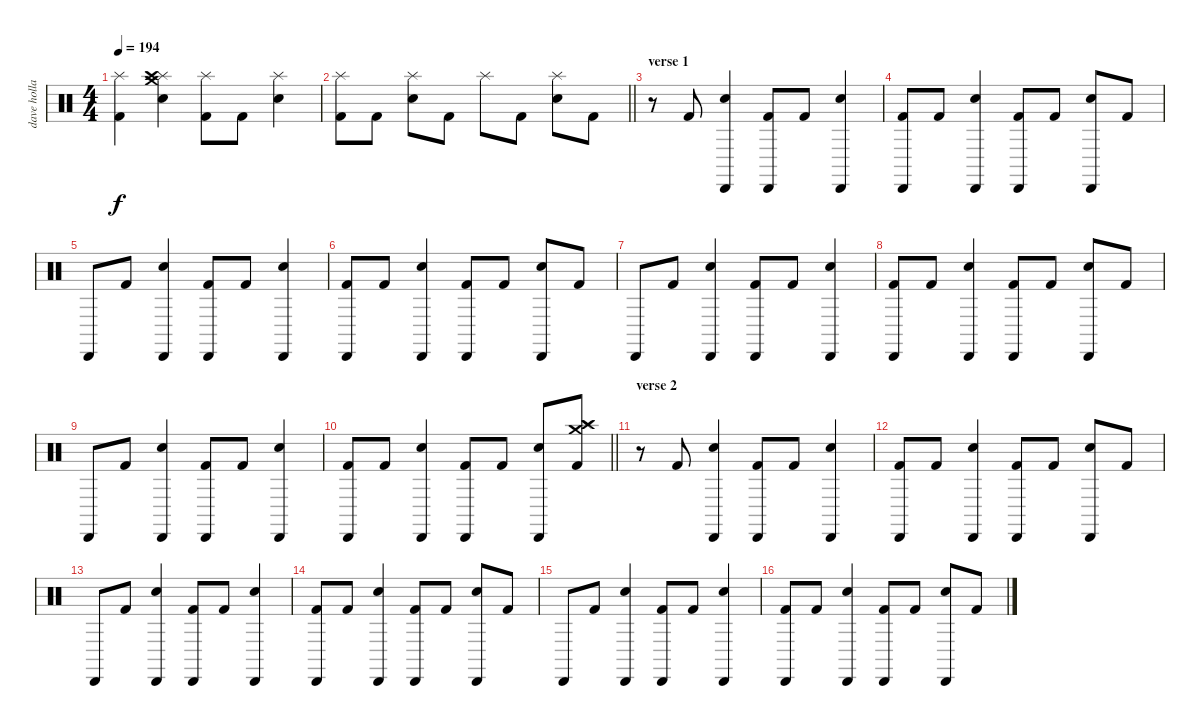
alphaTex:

\track ("dave holland" "dave holla") {instrument percussion}
\staff {score}
\articulation defaults
\ts (4 4)
\tempo 194
\clef neutral
\ks c
("Splash (hit)" "Kick (hit) 2").4{dy f} ("Crash medium (hit)" "Splash (hit)" "Crash high (hit)" "Electric Snare (hit)").4 ("Splash (hit)" "Kick (hit) 2").8 "Kick (hit) 2".8 ("Splash (hit)" "Electric Snare (hit)").4 |
\barLineRight lightlight
("Splash (hit)" "Kick (hit) 2").8 "Kick (hit) 2".8 ("Splash (hit)" "Electric Snare (hit)").8 "Kick (hit) 2".8 "Splash (hit)".8 "Kick (hit) 2".8 ("Splash (hit)" "Electric Snare (hit)").8 "Kick (hit) 2".8 |
\section ("" "verse 1")
r.8 "Kick (hit) 2".8 ("Cabasa (hit)" "Electric Snare (hit)").4 ("Cabasa (hit)" "Kick (hit) 2").8 "Kick (hit) 2".8 ("Cabasa (hit)" "Electric Snare (hit)").4 |
("Cabasa (hit)" "Kick (hit) 2").8 "Kick (hit) 2".8 ("Cabasa (hit)" "Electric Snare (hit)").4 ("Cabasa (hit)" "Kick (hit) 2").8 "Kick (hit) 2".8 ("Cabasa (hit)" "Electric Snare (hit)").8 "Kick (hit) 2".8 |
"Cabasa (hit)".8 "Kick (hit) 2".8 ("Cabasa (hit)" "Electric Snare (hit)").4 ("Cabasa (hit)" "Kick (hit) 2").8 "Kick (hit) 2".8 ("Cabasa (hit)" "Electric Snare (hit)").4 |
("Cabasa (hit)" "Kick (hit) 2").8 "Kick (hit) 2".8 ("Cabasa (hit)" "Electric Snare (hit)").4 ("Cabasa (hit)" "Kick (hit) 2").8 "Kick (hit) 2".8 ("Cabasa (hit)" "Electric Snare (hit)").8 "Kick (hit) 2".8 |
"Cabasa (hit)".8 "Kick (hit) 2".8 ("Cabasa (hit)" "Electric Snare (hit)").4 ("Cabasa (hit)" "Kick (hit) 2").8 "Kick (hit) 2".8 ("Cabasa (hit)" "Electric Snare (hit)").4 |
("Cabasa (hit)" "Kick (hit) 2").8 "Kick (hit) 2".8 ("Cabasa (hit)" "Electric Snare (hit)").4 ("Cabasa (hit)" "Kick (hit) 2").8 "Kick (hit) 2".8 ("Cabasa (hit)" "Electric Snare (hit)").8 "Kick (hit) 2".8 |
"Cabasa (hit)".8 "Kick (hit) 2".8 ("Cabasa (hit)" "Electric Snare (hit)").4 ("Cabasa (hit)" "Kick (hit) 2").8 "Kick (hit) 2".8 ("Cabasa (hit)" "Electric Snare (hit)").4 |
\barLineRight lightlight
("Cabasa (hit)" "Kick (hit) 2").8 "Kick (hit) 2".8 ("Cabasa (hit)" "Electric Snare (hit)").4 ("Cabasa (hit)" "Kick (hit) 2").8 "Kick (hit) 2".8 ("Cabasa (hit)" "Electric Snare (hit)").8 ("Crash medium (hit)" "Splash (hit)" "Crash high (hit)" "Kick (hit) 2").8 |
\section ("" "verse 2")
r.8 "Kick (hit) 2".8 ("Cabasa (hit)" "Electric Snare (hit)").4 ("Cabasa (hit)" "Kick (hit) 2").8 "Kick (hit) 2".8 ("Cabasa (hit)" "Electric Snare (hit)").4 |
("Cabasa (hit)" "Kick (hit) 2").8 "Kick (hit) 2".8 ("Cabasa (hit)" "Electric Snare (hit)").4 ("Cabasa (hit)" "Kick (hit) 2").8 "Kick (hit) 2".8 ("Cabasa (hit)" "Electric Snare (hit)").8 "Kick (hit) 2".8 |
"Cabasa (hit)".8 "Kick (hit) 2".8 ("Cabasa (hit)" "Electric Snare (hit)").4 ("Cabasa (hit)" "Kick (hit) 2").8 "Kick (hit) 2".8 ("Cabasa (hit)" "Electric Snare (hit)").4 |
("Cabasa (hit)" "Kick (hit) 2").8 "Kick (hit) 2".8 ("Cabasa (hit)" "Electric Snare (hit)").4 ("Cabasa (hit)" "Kick (hit) 2").8 "Kick (hit) 2".8 ("Cabasa (hit)" "Electric Snare (hit)").8 "Kick (hit) 2".8 |
"Cabasa (hit)".8 "Kick (hit) 2".8 ("Cabasa (hit)" "Electric Snare (hit)").4 ("Cabasa (hit)" "Kick (hit) 2").8 "Kick (hit) 2".8 ("Cabasa (hit)" "Electric Snare (hit)").4 |
("Cabasa (hit)" "Kick (hit) 2").8 "Kick (hit) 2".8 ("Cabasa (hit)" "Electric Snare (hit)").4 ("Cabasa (hit)" "Kick (hit) 2").8 "Kick (hit) 2".8 ("Cabasa (hit)" "Electric Snare (hit)").8 "Kick (hit) 2".8
